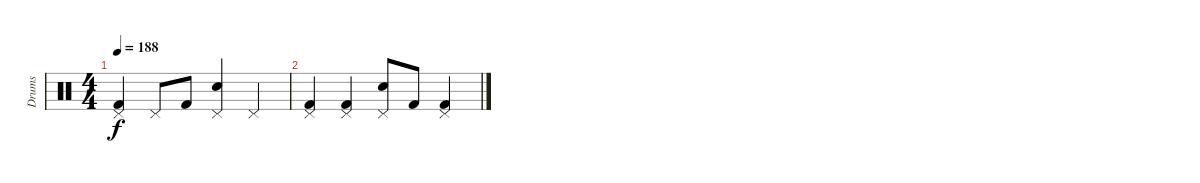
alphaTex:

\track ("Drums" "Drums") {instrument percussion}
\staff {score}
\articulation defaults
\ts (4 4)
\tempo 188
\clef neutral
\ks c
("Pedal Hi-Hat (hit)" "Kick (hit) 2").4{dy f} "Pedal Hi-Hat (hit)".8 "Kick (hit) 2".8 ("Pedal Hi-Hat (hit)" "Electric Snare (hit)").4 "Pedal Hi-Hat (hit)".4 |
("Pedal Hi-Hat (hit)" "Kick (hit) 2").4 ("Pedal Hi-Hat (hit)" "Kick (hit) 2").4 ("Pedal Hi-Hat (hit)" "Electric Snare (hit)").8 "Kick (hit) 2".8 ("Pedal Hi-Hat (hit)" "Kick (hit) 2").4
